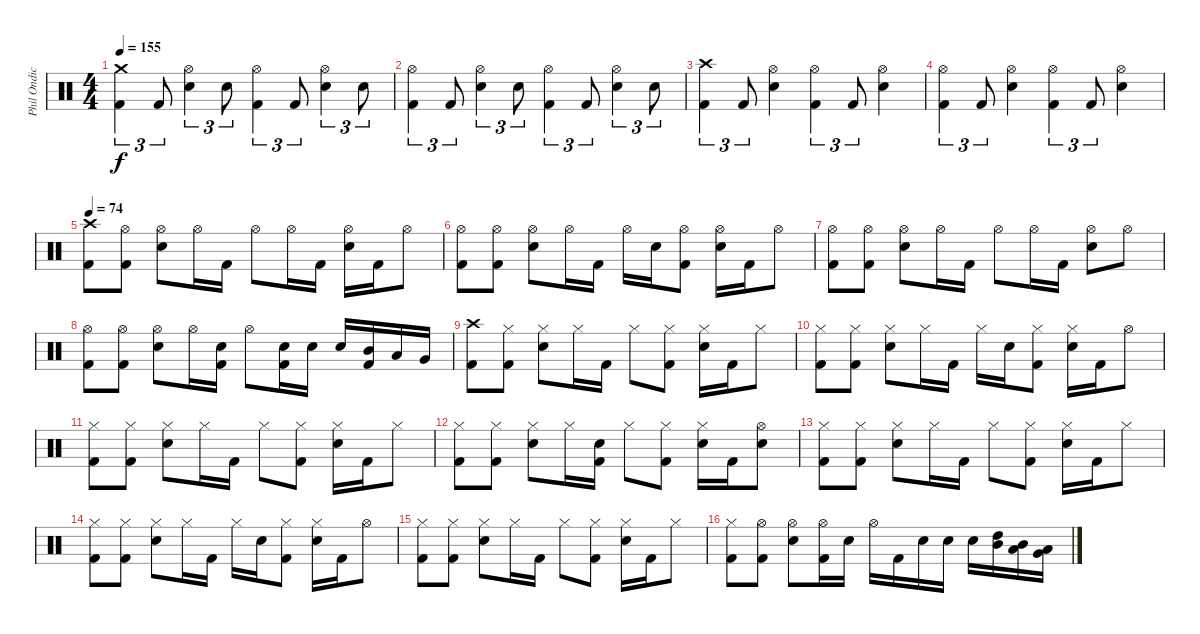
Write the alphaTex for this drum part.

\track ("Phil Ondich Drums" "Phil Ondic") {instrument percussion}
\staff {score}
\articulation defaults
\ts (4 4)
\tempo 155
\clef neutral
\ks c
("Crash medium (hit)" "Kick (hit) 2").4{tu (3 2) dy f} "Kick (hit) 2".8{tu (3 2)} ("Hi-Hat (open)" "Snare (hit) 2").4{tu (3 2)} "Snare (hit) 2".8{tu (3 2)} ("Hi-Hat (open)" "Kick (hit) 2").4{tu (3 2)} "Kick (hit) 2".8{tu (3 2)} ("Hi-Hat (open)" "Snare (hit) 2").4{tu (3 2)} "Snare (hit) 2".8{tu (3 2)} |
("Hi-Hat (open)" "Kick (hit) 2").4{tu (3 2)} "Kick (hit) 2".8{tu (3 2)} ("Hi-Hat (open)" "Snare (hit) 2").4{tu (3 2)} "Snare (hit) 2".8{tu (3 2)} ("Hi-Hat (open)" "Kick (hit) 2").4{tu (3 2)} "Kick (hit) 2".8{tu (3 2)} ("Hi-Hat (open)" "Snare (hit) 2").4{tu (3 2)} "Snare (hit) 2".8{tu (3 2)} |
("Crash high (hit)" "Kick (hit) 2").4{tu (3 2)} "Kick (hit) 2".8{tu (3 2)} ("Hi-Hat (open)" "Snare (hit) 2").4 ("Hi-Hat (open)" "Kick (hit) 2").4{tu (3 2)} "Kick (hit) 2".8{tu (3 2)} ("Hi-Hat (open)" "Snare (hit) 2").4 |
("Hi-Hat (open)" "Kick (hit) 2").4{tu (3 2)} "Kick (hit) 2".8{tu (3 2)} ("Hi-Hat (open)" "Snare (hit) 2").4 ("Hi-Hat (open)" "Kick (hit) 2").4{tu (3 2)} "Kick (hit) 2".8{tu (3 2)} ("Hi-Hat (open)" "Snare (hit) 2").4 |
\tempo 74
("Crash high (hit)" "Kick (hit) 2").8 ("Hi-Hat (open)" "Kick (hit) 2").8 ("Hi-Hat (open)" "Snare (hit) 2").8 "Hi-Hat (open)".16 "Kick (hit) 2".16 "Hi-Hat (open)".8 "Hi-Hat (open)".16 "Kick (hit) 2".16 ("Hi-Hat (open)" "Snare (hit) 2").16 "Kick (hit) 2".16 "Hi-Hat (open)".8 |
("Hi-Hat (open)" "Kick (hit) 2").8 ("Hi-Hat (open)" "Kick (hit) 2").8 ("Hi-Hat (open)" "Snare (hit) 2").8 "Hi-Hat (open)".16 "Kick (hit) 2".16 "Hi-Hat (open)".16 "Snare (hit) 2".16 ("Hi-Hat (open)" "Kick (hit) 2").8 ("Hi-Hat (open)" "Snare (hit) 2").16 "Kick (hit) 2".16 "Hi-Hat (open)".8 |
("Hi-Hat (open)" "Kick (hit) 2").8 ("Hi-Hat (open)" "Kick (hit) 2").8 ("Hi-Hat (open)" "Snare (hit) 2").8 "Hi-Hat (open)".16 "Kick (hit) 2".16 "Hi-Hat (open)".8 "Hi-Hat (open)".16 "Kick (hit) 2".16 ("Hi-Hat (open)" "Snare (hit) 2").8 "Hi-Hat (open)".8 |
("Hi-Hat (open)" "Kick (hit) 2").8 ("Hi-Hat (open)" "Kick (hit) 2").8 ("Hi-Hat (open)" "Snare (hit) 2").8 "Hi-Hat (open)".16 ("Snare (hit) 2" "Kick (hit) 2").16 "Hi-Hat (open)".8 ("Snare (hit) 2" "Kick (hit) 2").16 "Snare (hit) 2".16 "Snare (hit) 2".16 ("Mid Tom (hit)" "Kick (hit) 2").16 "Low Tom (hit)".16 "Very Low Tom (hit)".16 |
("Crash high (hit)" "Kick (hit) 2").8 ("Hi-Hat (closed)" "Kick (hit) 2").8 ("Hi-Hat (closed)" "Snare (hit) 2").8 "Hi-Hat (closed)".16 "Kick (hit) 2".16 "Hi-Hat (closed)".8 ("Hi-Hat (closed)" "Kick (hit) 2").8 ("Hi-Hat (closed)" "Snare (hit) 2").16 "Kick (hit) 2".16 "Hi-Hat (closed)".8 |
("Hi-Hat (closed)" "Kick (hit) 2").8 ("Hi-Hat (closed)" "Kick (hit) 2").8 ("Hi-Hat (closed)" "Snare (hit) 2").8 "Hi-Hat (closed)".16 "Kick (hit) 2".16 "Hi-Hat (closed)".16 "Snare (hit) 2".16 ("Hi-Hat (closed)" "Kick (hit) 2").8 ("Hi-Hat (closed)" "Snare (hit) 2").16 "Kick (hit) 2".16 "Hi-Hat (open)".8 |
("Hi-Hat (closed)" "Kick (hit) 2").8 ("Hi-Hat (closed)" "Kick (hit) 2").8 ("Hi-Hat (closed)" "Snare (hit) 2").8 "Hi-Hat (closed)".16 "Kick (hit) 2".16 "Hi-Hat (closed)".8 ("Hi-Hat (closed)" "Kick (hit) 2").8 ("Hi-Hat (closed)" "Snare (hit) 2").16 "Kick (hit) 2".16 "Hi-Hat (closed)".8 |
("Hi-Hat (closed)" "Kick (hit) 2").8 ("Hi-Hat (closed)" "Kick (hit) 2").8 ("Hi-Hat (closed)" "Snare (hit) 2").8 "Hi-Hat (closed)".16 ("Snare (hit) 2" "Kick (hit) 2").16 "Hi-Hat (closed)".8 ("Hi-Hat (closed)" "Kick (hit) 2").8 ("Hi-Hat (closed)" "Snare (hit) 2").16 "Kick (hit) 2".16 ("Hi-Hat (open)" "Snare (hit) 2").8 |
("Hi-Hat (closed)" "Kick (hit) 2").8 ("Hi-Hat (closed)" "Kick (hit) 2").8 ("Hi-Hat (closed)" "Snare (hit) 2").8 "Hi-Hat (closed)".16 "Kick (hit) 2".16 "Hi-Hat (closed)".8 ("Hi-Hat (closed)" "Kick (hit) 2").8 ("Hi-Hat (closed)" "Snare (hit) 2").16 "Kick (hit) 2".16 "Hi-Hat (closed)".8 |
("Hi-Hat (closed)" "Kick (hit) 2").8 ("Hi-Hat (closed)" "Kick (hit) 2").8 ("Hi-Hat (closed)" "Snare (hit) 2").8 "Hi-Hat (closed)".16 "Kick (hit) 2".16 "Hi-Hat (closed)".16 "Snare (hit) 2".16 ("Hi-Hat (closed)" "Kick (hit) 2").8 ("Hi-Hat (closed)" "Snare (hit) 2").16 "Kick (hit) 2".16 "Hi-Hat (open)".8 |
("Hi-Hat (closed)" "Kick (hit) 2").8 ("Hi-Hat (closed)" "Kick (hit) 2").8 ("Hi-Hat (closed)" "Snare (hit) 2").8 "Hi-Hat (closed)".16 "Kick (hit) 2".16 "Hi-Hat (closed)".8 ("Hi-Hat (closed)" "Kick (hit) 2").8 ("Hi-Hat (closed)" "Snare (hit) 2").16 "Kick (hit) 2".16 "Hi-Hat (closed)".8 |
("Hi-Hat (closed)" "Kick (hit) 2").8 ("Hi-Hat (open)" "Kick (hit) 2").8 ("Hi-Hat (open)" "Snare (hit) 2").8 ("Hi-Hat (open)" "Kick (hit) 2").16 "Snare (hit) 2".16 "Hi-Hat (open)".16 "Kick (hit) 2".16 "Snare (hit) 2".16 "Snare (hit) 2".16 "Snare (hit) 2".16 ("High Tom (hit)" "Mid Tom (hit)").16 ("Mid Tom (hit)" "Low Tom (hit)").16 ("Low Tom (hit)" "Very Low Tom (hit)").16
